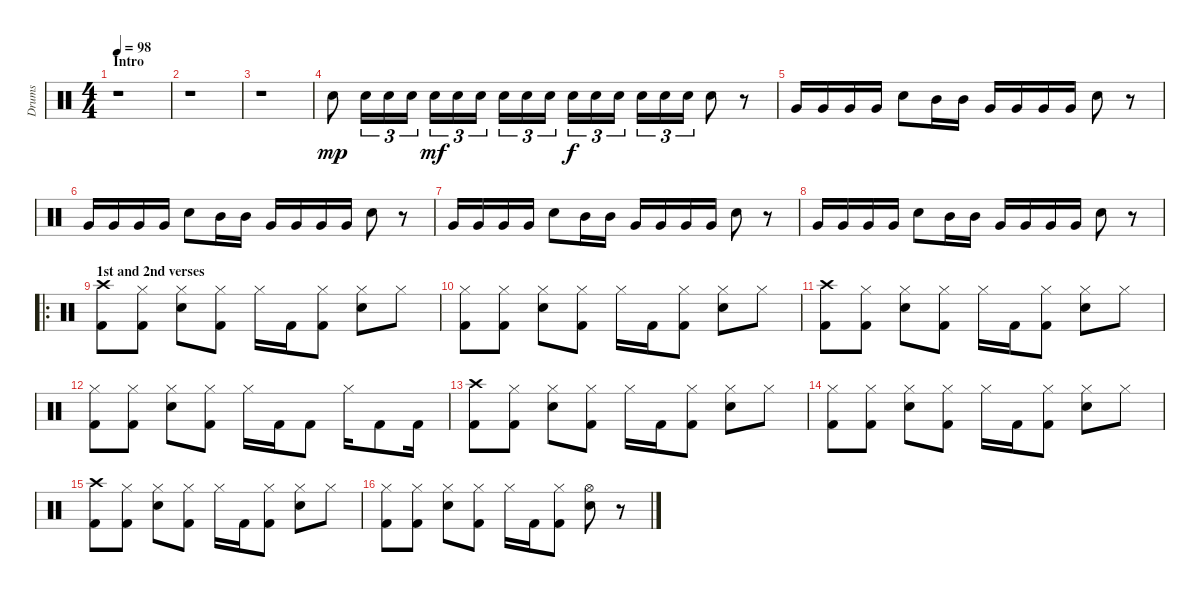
\track ("Drums" "Drums") {instrument percussion}
\staff {score}
\articulation defaults
\ts (4 4)
\section ("" "Intro")
\tempo 98
\clef neutral
\ks c
r.1{dy mp} |
r.1 |
r.1 |
"Electric Snare (hit)".8 "Electric Snare (hit)".16{tu (3 2)} "Electric Snare (hit)".16{tu (3 2)} "Electric Snare (hit)".16{tu (3 2)} "Electric Snare (hit)".16{tu (3 2) dy mf} "Electric Snare (hit)".16{tu (3 2)} "Electric Snare (hit)".16{tu (3 2)} "Electric Snare (hit)".16{tu (3 2)} "Electric Snare (hit)".16{tu (3 2)} "Electric Snare (hit)".16{tu (3 2)} "Electric Snare (hit)".16{tu (3 2) dy f} "Electric Snare (hit)".16{tu (3 2)} "Electric Snare (hit)".16{tu (3 2)} "Electric Snare (hit)".16{tu (3 2)} "Electric Snare (hit)".16{tu (3 2)} "Electric Snare (hit)".16{tu (3 2)} "Electric Snare (hit)".8 r.8 |
"Very Low Tom (hit)".16 "Very Low Tom (hit)".16 "Very Low Tom (hit)".16 "Very Low Tom (hit)".16 "Electric Snare (hit)".8 "Mid Tom (hit)".16 "Mid Tom (hit)".16 "Very Low Tom (hit)".16 "Very Low Tom (hit)".16 "Very Low Tom (hit)".16 "Very Low Tom (hit)".16 "Electric Snare (hit)".8 r.8 |
"Very Low Tom (hit)".16 "Very Low Tom (hit)".16 "Very Low Tom (hit)".16 "Very Low Tom (hit)".16 "Electric Snare (hit)".8 "Mid Tom (hit)".16 "Mid Tom (hit)".16 "Very Low Tom (hit)".16 "Very Low Tom (hit)".16 "Very Low Tom (hit)".16 "Very Low Tom (hit)".16 "Electric Snare (hit)".8 r.8 |
"Very Low Tom (hit)".16 "Very Low Tom (hit)".16 "Very Low Tom (hit)".16 "Very Low Tom (hit)".16 "Electric Snare (hit)".8 "Mid Tom (hit)".16 "Mid Tom (hit)".16 "Very Low Tom (hit)".16 "Very Low Tom (hit)".16 "Very Low Tom (hit)".16 "Very Low Tom (hit)".16 "Electric Snare (hit)".8 r.8 |
"Very Low Tom (hit)".16 "Very Low Tom (hit)".16 "Very Low Tom (hit)".16 "Very Low Tom (hit)".16 "Electric Snare (hit)".8 "Mid Tom (hit)".16 "Mid Tom (hit)".16 "Very Low Tom (hit)".16 "Very Low Tom (hit)".16 "Very Low Tom (hit)".16 "Very Low Tom (hit)".16 "Electric Snare (hit)".8 r.8 |
\ro
\section ("" "1st and 2nd verses")
("Crash high (hit)" "Kick (hit) 2").8 ("Hi-Hat (closed)" "Kick (hit) 2").8 ("Hi-Hat (closed)" "Electric Snare (hit)").8 ("Hi-Hat (closed)" "Kick (hit) 2").8 "Hi-Hat (closed)".16 "Kick (hit) 2".16 ("Hi-Hat (closed)" "Kick (hit) 2").8 ("Hi-Hat (closed)" "Electric Snare (hit)").8 "Hi-Hat (closed)".8 |
("Hi-Hat (closed)" "Kick (hit) 2").8 ("Hi-Hat (closed)" "Kick (hit) 2").8 ("Hi-Hat (closed)" "Electric Snare (hit)").8 ("Hi-Hat (closed)" "Kick (hit) 2").8 "Hi-Hat (closed)".16 "Kick (hit) 2".16 ("Hi-Hat (closed)" "Kick (hit) 2").8 ("Hi-Hat (closed)" "Electric Snare (hit)").8 "Hi-Hat (closed)".8 |
("Crash high (hit)" "Kick (hit) 2").8 ("Hi-Hat (closed)" "Kick (hit) 2").8 ("Hi-Hat (closed)" "Electric Snare (hit)").8 ("Hi-Hat (closed)" "Kick (hit) 2").8 "Hi-Hat (closed)".16 "Kick (hit) 2".16 ("Hi-Hat (closed)" "Kick (hit) 2").8 ("Hi-Hat (closed)" "Electric Snare (hit)").8 "Hi-Hat (closed)".8 |
("Hi-Hat (closed)" "Kick (hit) 2").8 ("Hi-Hat (closed)" "Kick (hit) 2").8 ("Hi-Hat (closed)" "Electric Snare (hit)").8 ("Hi-Hat (closed)" "Kick (hit) 2").8 "Hi-Hat (closed)".16 "Kick (hit) 2".16 "Kick (hit) 2".8 "Hi-Hat (closed)".16 "Kick (hit) 2".8 "Kick (hit) 2".16 |
("Crash high (hit)" "Kick (hit) 2").8 ("Hi-Hat (closed)" "Kick (hit) 2").8 ("Hi-Hat (closed)" "Electric Snare (hit)").8 ("Hi-Hat (closed)" "Kick (hit) 2").8 "Hi-Hat (closed)".16 "Kick (hit) 2".16 ("Hi-Hat (closed)" "Kick (hit) 2").8 ("Hi-Hat (closed)" "Electric Snare (hit)").8 "Hi-Hat (closed)".8 |
("Hi-Hat (closed)" "Kick (hit) 2").8 ("Hi-Hat (closed)" "Kick (hit) 2").8 ("Hi-Hat (closed)" "Electric Snare (hit)").8 ("Hi-Hat (closed)" "Kick (hit) 2").8 "Hi-Hat (closed)".16 "Kick (hit) 2".16 ("Hi-Hat (closed)" "Kick (hit) 2").8 ("Hi-Hat (closed)" "Electric Snare (hit)").8 "Hi-Hat (closed)".8 |
("Crash high (hit)" "Kick (hit) 2").8 ("Hi-Hat (closed)" "Kick (hit) 2").8 ("Hi-Hat (closed)" "Electric Snare (hit)").8 ("Hi-Hat (closed)" "Kick (hit) 2").8 "Hi-Hat (closed)".16 "Kick (hit) 2".16 ("Hi-Hat (closed)" "Kick (hit) 2").8 ("Hi-Hat (closed)" "Electric Snare (hit)").8 "Hi-Hat (closed)".8 |
("Hi-Hat (closed)" "Kick (hit) 2").8 ("Hi-Hat (closed)" "Kick (hit) 2").8 ("Hi-Hat (closed)" "Electric Snare (hit)").8 ("Hi-Hat (closed)" "Kick (hit) 2").8 "Hi-Hat (closed)".16 "Kick (hit) 2".16 ("Hi-Hat (closed)" "Kick (hit) 2").8 ("Hi-Hat (open)" "Electric Snare (hit)").8 r.8
